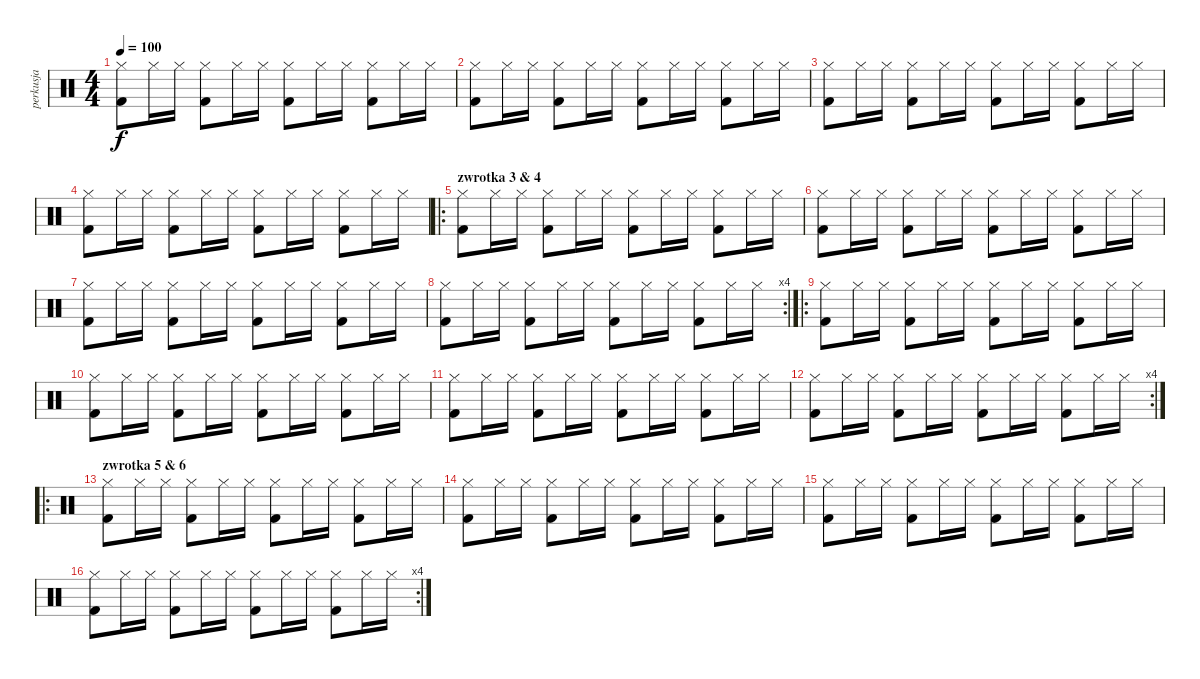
\track ("perkusja" "perkusja") {instrument percussion}
\staff {score}
\articulation defaults
\ts (4 4)
\tempo 100
\clef neutral
\ks c
("Hi-Hat (closed)" "Kick (hit) 2").8{dy f} "Hi-Hat (closed)".16 "Hi-Hat (closed)".16 ("Hi-Hat (closed)" "Kick (hit) 2").8 "Hi-Hat (closed)".16 "Hi-Hat (closed)".16 ("Hi-Hat (closed)" "Kick (hit) 2").8 "Hi-Hat (closed)".16 "Hi-Hat (closed)".16 ("Hi-Hat (closed)" "Kick (hit) 2").8 "Hi-Hat (closed)".16 "Hi-Hat (closed)".16 |
("Hi-Hat (closed)" "Kick (hit) 2").8 "Hi-Hat (closed)".16 "Hi-Hat (closed)".16 ("Hi-Hat (closed)" "Kick (hit) 2").8 "Hi-Hat (closed)".16 "Hi-Hat (closed)".16 ("Hi-Hat (closed)" "Kick (hit) 2").8 "Hi-Hat (closed)".16 "Hi-Hat (closed)".16 ("Hi-Hat (closed)" "Kick (hit) 2").8 "Hi-Hat (closed)".16 "Hi-Hat (closed)".16 |
("Hi-Hat (closed)" "Kick (hit) 2").8 "Hi-Hat (closed)".16 "Hi-Hat (closed)".16 ("Hi-Hat (closed)" "Kick (hit) 2").8 "Hi-Hat (closed)".16 "Hi-Hat (closed)".16 ("Hi-Hat (closed)" "Kick (hit) 2").8 "Hi-Hat (closed)".16 "Hi-Hat (closed)".16 ("Hi-Hat (closed)" "Kick (hit) 2").8 "Hi-Hat (closed)".16 "Hi-Hat (closed)".16 |
("Hi-Hat (closed)" "Kick (hit) 2").8 "Hi-Hat (closed)".16 "Hi-Hat (closed)".16 ("Hi-Hat (closed)" "Kick (hit) 2").8 "Hi-Hat (closed)".16 "Hi-Hat (closed)".16 ("Hi-Hat (closed)" "Kick (hit) 2").8 "Hi-Hat (closed)".16 "Hi-Hat (closed)".16 ("Hi-Hat (closed)" "Kick (hit) 2").8 "Hi-Hat (closed)".16 "Hi-Hat (closed)".16 |
\ro
\section ("" "zwrotka 3 & 4")
("Hi-Hat (closed)" "Kick (hit) 2").8 "Hi-Hat (closed)".16 "Hi-Hat (closed)".16 ("Hi-Hat (closed)" "Kick (hit) 2").8 "Hi-Hat (closed)".16 "Hi-Hat (closed)".16 ("Hi-Hat (closed)" "Kick (hit) 2").8 "Hi-Hat (closed)".16 "Hi-Hat (closed)".16 ("Hi-Hat (closed)" "Kick (hit) 2").8 "Hi-Hat (closed)".16 "Hi-Hat (closed)".16 |
("Hi-Hat (closed)" "Kick (hit) 2").8 "Hi-Hat (closed)".16 "Hi-Hat (closed)".16 ("Hi-Hat (closed)" "Kick (hit) 2").8 "Hi-Hat (closed)".16 "Hi-Hat (closed)".16 ("Hi-Hat (closed)" "Kick (hit) 2").8 "Hi-Hat (closed)".16 "Hi-Hat (closed)".16 ("Hi-Hat (closed)" "Kick (hit) 2").8 "Hi-Hat (closed)".16 "Hi-Hat (closed)".16 |
("Hi-Hat (closed)" "Kick (hit) 2").8 "Hi-Hat (closed)".16 "Hi-Hat (closed)".16 ("Hi-Hat (closed)" "Kick (hit) 2").8 "Hi-Hat (closed)".16 "Hi-Hat (closed)".16 ("Hi-Hat (closed)" "Kick (hit) 2").8 "Hi-Hat (closed)".16 "Hi-Hat (closed)".16 ("Hi-Hat (closed)" "Kick (hit) 2").8 "Hi-Hat (closed)".16 "Hi-Hat (closed)".16 |
\rc 4
("Hi-Hat (closed)" "Kick (hit) 2").8 "Hi-Hat (closed)".16 "Hi-Hat (closed)".16 ("Hi-Hat (closed)" "Kick (hit) 2").8 "Hi-Hat (closed)".16 "Hi-Hat (closed)".16 ("Hi-Hat (closed)" "Kick (hit) 2").8 "Hi-Hat (closed)".16 "Hi-Hat (closed)".16 ("Hi-Hat (closed)" "Kick (hit) 2").8 "Hi-Hat (closed)".16 "Hi-Hat (closed)".16 |
\ro
("Hi-Hat (closed)" "Kick (hit) 2").8 "Hi-Hat (closed)".16 "Hi-Hat (closed)".16 ("Hi-Hat (closed)" "Kick (hit) 2").8 "Hi-Hat (closed)".16 "Hi-Hat (closed)".16 ("Hi-Hat (closed)" "Kick (hit) 2").8 "Hi-Hat (closed)".16 "Hi-Hat (closed)".16 ("Hi-Hat (closed)" "Kick (hit) 2").8 "Hi-Hat (closed)".16 "Hi-Hat (closed)".16 |
("Hi-Hat (closed)" "Kick (hit) 2").8 "Hi-Hat (closed)".16 "Hi-Hat (closed)".16 ("Hi-Hat (closed)" "Kick (hit) 2").8 "Hi-Hat (closed)".16 "Hi-Hat (closed)".16 ("Hi-Hat (closed)" "Kick (hit) 2").8 "Hi-Hat (closed)".16 "Hi-Hat (closed)".16 ("Hi-Hat (closed)" "Kick (hit) 2").8 "Hi-Hat (closed)".16 "Hi-Hat (closed)".16 |
("Hi-Hat (closed)" "Kick (hit) 2").8 "Hi-Hat (closed)".16 "Hi-Hat (closed)".16 ("Hi-Hat (closed)" "Kick (hit) 2").8 "Hi-Hat (closed)".16 "Hi-Hat (closed)".16 ("Hi-Hat (closed)" "Kick (hit) 2").8 "Hi-Hat (closed)".16 "Hi-Hat (closed)".16 ("Hi-Hat (closed)" "Kick (hit) 2").8 "Hi-Hat (closed)".16 "Hi-Hat (closed)".16 |
\rc 4
("Hi-Hat (closed)" "Kick (hit) 2").8 "Hi-Hat (closed)".16 "Hi-Hat (closed)".16 ("Hi-Hat (closed)" "Kick (hit) 2").8 "Hi-Hat (closed)".16 "Hi-Hat (closed)".16 ("Hi-Hat (closed)" "Kick (hit) 2").8 "Hi-Hat (closed)".16 "Hi-Hat (closed)".16 ("Hi-Hat (closed)" "Kick (hit) 2").8 "Hi-Hat (closed)".16 "Hi-Hat (closed)".16 |
\ro
\section ("" "zwrotka 5 & 6")
("Hi-Hat (closed)" "Kick (hit) 2").8 "Hi-Hat (closed)".16 "Hi-Hat (closed)".16 ("Hi-Hat (closed)" "Kick (hit) 2").8 "Hi-Hat (closed)".16 "Hi-Hat (closed)".16 ("Hi-Hat (closed)" "Kick (hit) 2").8 "Hi-Hat (closed)".16 "Hi-Hat (closed)".16 ("Hi-Hat (closed)" "Kick (hit) 2").8 "Hi-Hat (closed)".16 "Hi-Hat (closed)".16 |
("Hi-Hat (closed)" "Kick (hit) 2").8 "Hi-Hat (closed)".16 "Hi-Hat (closed)".16 ("Hi-Hat (closed)" "Kick (hit) 2").8 "Hi-Hat (closed)".16 "Hi-Hat (closed)".16 ("Hi-Hat (closed)" "Kick (hit) 2").8 "Hi-Hat (closed)".16 "Hi-Hat (closed)".16 ("Hi-Hat (closed)" "Kick (hit) 2").8 "Hi-Hat (closed)".16 "Hi-Hat (closed)".16 |
("Hi-Hat (closed)" "Kick (hit) 2").8 "Hi-Hat (closed)".16 "Hi-Hat (closed)".16 ("Hi-Hat (closed)" "Kick (hit) 2").8 "Hi-Hat (closed)".16 "Hi-Hat (closed)".16 ("Hi-Hat (closed)" "Kick (hit) 2").8 "Hi-Hat (closed)".16 "Hi-Hat (closed)".16 ("Hi-Hat (closed)" "Kick (hit) 2").8 "Hi-Hat (closed)".16 "Hi-Hat (closed)".16 |
\rc 4
("Hi-Hat (closed)" "Kick (hit) 2").8 "Hi-Hat (closed)".16 "Hi-Hat (closed)".16 ("Hi-Hat (closed)" "Kick (hit) 2").8 "Hi-Hat (closed)".16 "Hi-Hat (closed)".16 ("Hi-Hat (closed)" "Kick (hit) 2").8 "Hi-Hat (closed)".16 "Hi-Hat (closed)".16 ("Hi-Hat (closed)" "Kick (hit) 2").8 "Hi-Hat (closed)".16 "Hi-Hat (closed)".16
